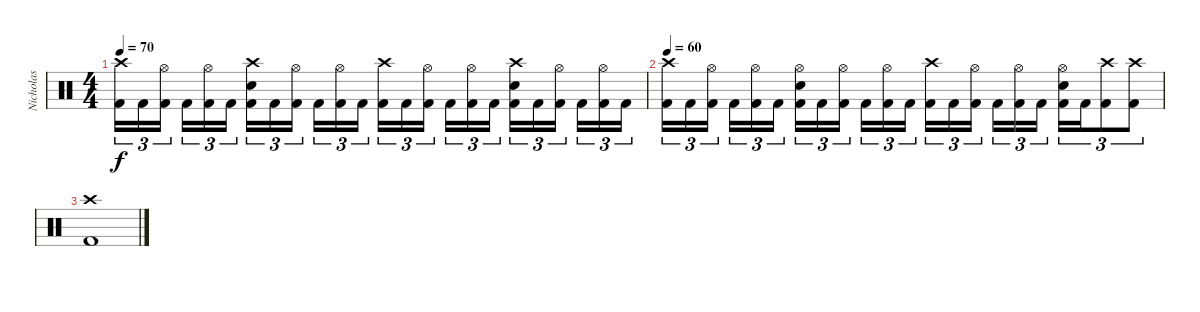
\track ("Nicholas" "Nicholas") {instrument percussion}
\staff {score}
\articulation defaults
\ts (4 4)
\tempo 70
\clef neutral
\ks c
("Kick (hit) 2" "Crash high (hit)").16{tu (3 2) dy f} "Kick (hit) 2".16{tu (3 2)} ("Kick (hit) 2" "Hi-Hat (open)").16{tu (3 2)} "Kick (hit) 2".16{tu (3 2)} ("Kick (hit) 2" "Hi-Hat (open)").16{tu (3 2)} "Kick (hit) 2".16{tu (3 2)} ("Kick (hit) 2" "Snare (hit) 2" "Crash high (hit)").16{tu (3 2)} "Kick (hit) 2".16{tu (3 2)} ("Kick (hit) 2" "Hi-Hat (open)").16{tu (3 2)} "Kick (hit) 2".16{tu (3 2)} ("Kick (hit) 2" "Hi-Hat (open)").16{tu (3 2)} "Kick (hit) 2".16{tu (3 2)} ("Kick (hit) 2" "Crash high (hit)").16{tu (3 2)} "Kick (hit) 2".16{tu (3 2)} ("Kick (hit) 2" "Hi-Hat (open)").16{tu (3 2)} "Kick (hit) 2".16{tu (3 2)} ("Kick (hit) 2" "Hi-Hat (open)").16{tu (3 2)} "Kick (hit) 2".16{tu (3 2)} ("Kick (hit) 2" "Snare (hit) 2" "Crash high (hit)").16{tu (3 2)} "Kick (hit) 2".16{tu (3 2)} ("Kick (hit) 2" "Hi-Hat (open)").16{tu (3 2)} "Kick (hit) 2".16{tu (3 2)} ("Kick (hit) 2" "Hi-Hat (open)").16{tu (3 2)} "Kick (hit) 2".16{tu (3 2)} |
\tempo 60
("Kick (hit) 2" "Crash high (hit)").16{tu (3 2)} "Kick (hit) 2".16{tu (3 2)} ("Kick (hit) 2" "Hi-Hat (open)").16{tu (3 2)} "Kick (hit) 2".16{tu (3 2)} ("Kick (hit) 2" "Hi-Hat (open)").16{tu (3 2)} "Kick (hit) 2".16{tu (3 2)} ("Kick (hit) 2" "Snare (hit) 2" "Hi-Hat (open)").16{tu (3 2)} "Kick (hit) 2".16{tu (3 2)} ("Kick (hit) 2" "Hi-Hat (open)").16{tu (3 2)} "Kick (hit) 2".16{tu (3 2)} ("Kick (hit) 2" "Hi-Hat (open)").16{tu (3 2)} "Kick (hit) 2".16{tu (3 2)} ("Kick (hit) 2" "Crash high (hit)").16{tu (3 2)} "Kick (hit) 2".16{tu (3 2)} ("Kick (hit) 2" "Hi-Hat (open)").16{tu (3 2)} "Kick (hit) 2".16{tu (3 2)} ("Kick (hit) 2" "Hi-Hat (open)").16{tu (3 2)} "Kick (hit) 2".16{tu (3 2)} ("Kick (hit) 2" "Snare (hit) 2" "Hi-Hat (open)").16{tu (3 2)} "Kick (hit) 2".16{tu (3 2)} ("Kick (hit) 2" "Crash high (hit)").8{tu (3 2)} ("Kick (hit) 2" "Crash high (hit)").8{tu (3 2)} |
("Kick (hit) 2" "Crash high (hit)").1
